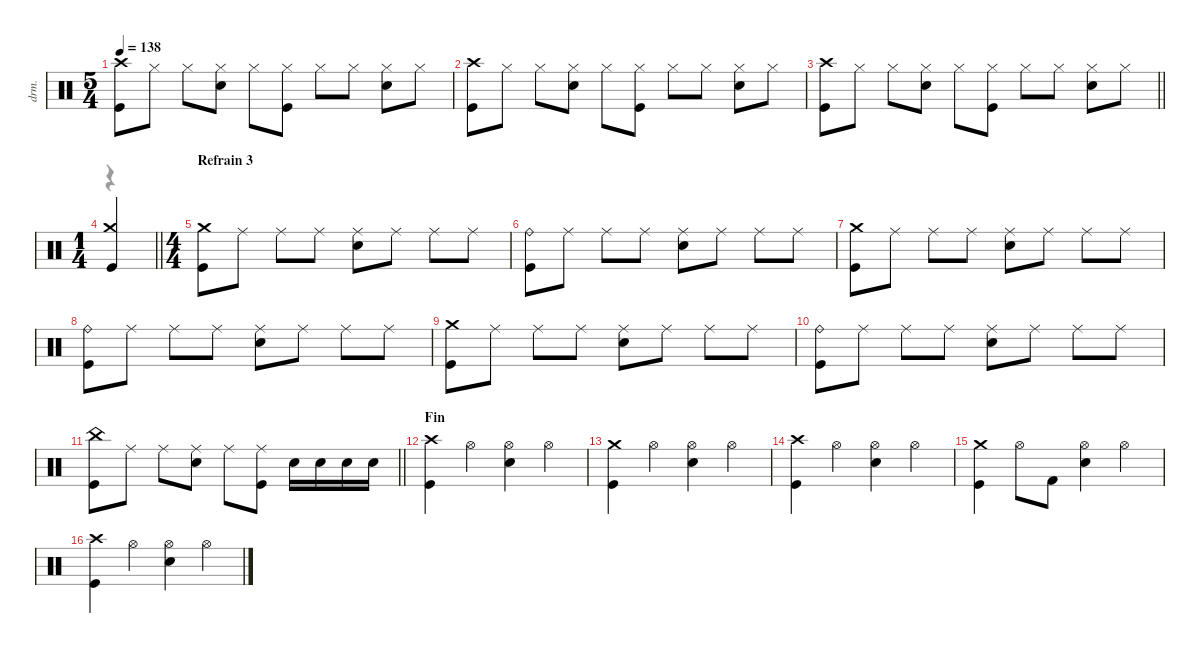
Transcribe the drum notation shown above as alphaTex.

\defaultSystemsLayout 4
\hideDynamics
\bracketExtendMode nobrackets
\track ("Percussions" "drm.") {instrument percussion}
\staff {score}
\articulation defaults
\voice
\ts (5 4)
\tempo 138
\clef neutral
\ks aminor
("Crash high (hit)" "Kick (hit)").8{dy f} "Hi-Hat (closed)".8 "Hi-Hat (closed)".8 ("Hi-Hat (closed)" "Snare (hit) 2").8 "Hi-Hat (closed)".8 ("Hi-Hat (closed)" "Kick (hit)").8 "Hi-Hat (closed)".8 "Hi-Hat (closed)".8 ("Hi-Hat (closed)" "Snare (hit) 2").8 "Hi-Hat (closed)".8 |
("Crash high (hit)" "Kick (hit)").8 "Hi-Hat (closed)".8 "Hi-Hat (closed)".8 ("Hi-Hat (closed)" "Snare (hit) 2").8 "Hi-Hat (closed)".8 ("Hi-Hat (closed)" "Kick (hit)").8 "Hi-Hat (closed)".8 "Hi-Hat (closed)".8 ("Hi-Hat (closed)" "Snare (hit) 2").8 "Hi-Hat (closed)".8 |
\barLineRight lightlight
("Crash high (hit)" "Kick (hit)").8 "Hi-Hat (closed)".8 "Hi-Hat (closed)".8 ("Hi-Hat (closed)" "Snare (hit) 2").8 "Hi-Hat (closed)".8 ("Hi-Hat (closed)" "Kick (hit)").8 "Hi-Hat (closed)".8 "Hi-Hat (closed)".8 ("Hi-Hat (closed)" "Snare (hit) 2").8 "Hi-Hat (closed)".8 |
\ts (1 4)
\beaming (8 2)
\barLineRight lightlight
("Kick (hit)" "Crash medium (hit)").4 |
\ts (4 4)
\beaming (8 2 2 2 2)
\section ("" "Refrain 3")
("Crash medium (hit)" "Kick (hit)").8 "Ride (middle)".8{dy mf} "Ride (middle)".8{dy f} "Ride (middle)".8{dy mf} ("Ride (middle)" "Snare (hit) 2").8{dy f} "Ride (middle)".8{dy mf} "Ride (middle)".8{dy f} "Ride (middle)".8{dy mf} |
("Ride (bell)" "Kick (hit)").8{dy f} "Ride (middle)".8{dy mf} "Ride (middle)".8{dy f} "Ride (middle)".8{dy mf} ("Ride (middle)" "Snare (hit) 2").8{dy f} "Ride (middle)".8{dy mf} "Ride (middle)".8{dy f} "Ride (middle)".8{dy mf} |
("Crash medium (hit)" "Kick (hit)").8{dy f} "Ride (middle)".8{dy mf} "Ride (middle)".8{dy f} "Ride (middle)".8{dy mf} ("Ride (middle)" "Snare (hit) 2").8{dy f} "Ride (middle)".8{dy mf} "Ride (middle)".8{dy f} "Ride (middle)".8{dy mf} |
("Ride (bell)" "Kick (hit)").8{dy f} "Ride (middle)".8{dy mf} "Ride (middle)".8{dy f} "Ride (middle)".8{dy mf} ("Ride (middle)" "Snare (hit) 2").8{dy f} "Ride (middle)".8{dy mf} "Ride (middle)".8{dy f} "Ride (middle)".8{dy mf} |
("Crash medium (hit)" "Kick (hit)").8{dy f} "Ride (middle)".8{dy mf} "Ride (middle)".8{dy f} "Ride (middle)".8{dy mf} ("Ride (middle)" "Snare (hit) 2").8{dy f} "Ride (middle)".8{dy mf} "Ride (middle)".8{dy f} "Ride (middle)".8{dy mf} |
("Ride (bell)" "Kick (hit)").8{dy f} "Ride (middle)".8{dy mf} "Ride (middle)".8{dy f} "Ride (middle)".8{dy mf} ("Ride (middle)" "Snare (hit) 2").8{dy f} "Ride (middle)".8{dy mf} "Ride (middle)".8{dy f} "Ride (middle)".8{dy mf} |
\barLineRight lightlight
("China (hit)" "Kick (hit)").8{dy mp} "Ride (middle)".8{dy mf} "Ride (middle)".8 ("Ride (middle)" "Snare (hit) 2").8{dy f} "Ride (middle)".8{dy mf} ("Ride (middle)" "Kick (hit)").8 "Snare (hit) 2".16{dy mp} "Snare (hit) 2".16{dy mf} "Snare (hit) 2".16 "Snare (hit) 2".16{dy f} |
\section ("" "Fin")
("Crash high (hit)" "Kick (hit)").4 "Hi-Hat (open)".4 ("Hi-Hat (open)" "Snare (hit) 2").4 "Hi-Hat (open)".4 |
("Crash medium (hit)" "Kick (hit)").4 "Hi-Hat (open)".4 ("Hi-Hat (open)" "Snare (hit) 2").4 "Hi-Hat (open)".4 |
("Crash high (hit)" "Kick (hit)").4 "Hi-Hat (open)".4 ("Hi-Hat (open)" "Snare (hit) 2").4 "Hi-Hat (open)".4 |
("Crash medium (hit)" "Kick (hit)").4 "Hi-Hat (open)".8 "Kick (hit) 2".8 ("Hi-Hat (open)" "Snare (hit) 2").4 "Hi-Hat (open)".4 |
("Crash high (hit)" "Kick (hit)").4 "Hi-Hat (open)".4 ("Hi-Hat (open)" "Snare (hit) 2").4 "Hi-Hat (open)".4
\voice
\clef neutral
\ottava regular
\simile none
\ks aminor
|
|
\barLineRight lightlight
|
\barLineRight lightlight
r.4{dy mf} |
|
|
|
|
|
|
\barLineRight lightlight
|
|
|
|
|
